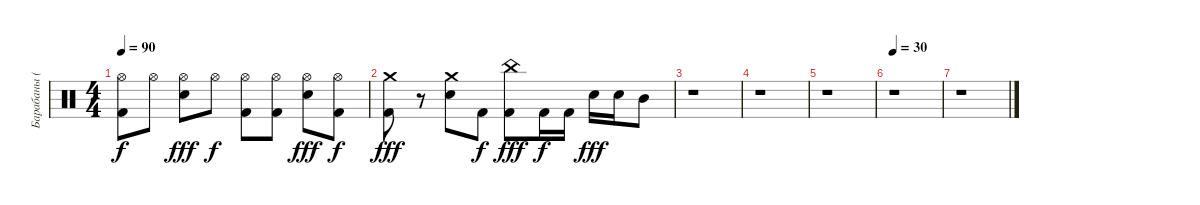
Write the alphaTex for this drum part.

\track ("Барабаны (Илья)" "Барабаны (") {instrument percussion}
\staff {score}
\articulation defaults
\ts (4 4)
\tempo 90
\clef neutral
\ks c
("Hi-Hat (open)" "Kick (hit) 2").8{dy f} "Hi-Hat (open)".8 ("Snare (hit) 2" "Hi-Hat (open)").8{dy fff} "Hi-Hat (open)".8{dy f} ("Hi-Hat (open)" "Kick (hit) 2").8 ("Kick (hit) 2" "Hi-Hat (open)").8 ("Snare (hit) 2" "Hi-Hat (open)").8{dy fff} ("Kick (hit) 2" "Hi-Hat (open)").8{dy f} |
("Crash medium (hit)" "Kick (hit) 2").8{dy fff} r.8 ("Crash medium (hit)" "Snare (hit) 2").8 "Kick (hit) 2".8{dy f} ("China (hit)" "Kick (hit) 2").8{dy fff} "Kick (hit) 2".16{dy f} "Kick (hit) 2".16 "Snare (hit) 2".16{dy fff} "Snare (hit) 2".16 "Mid Tom (hit)".8 |
r.1 |
r.1 |
r.1 |
\tempo 30
r.1 |
r.1
